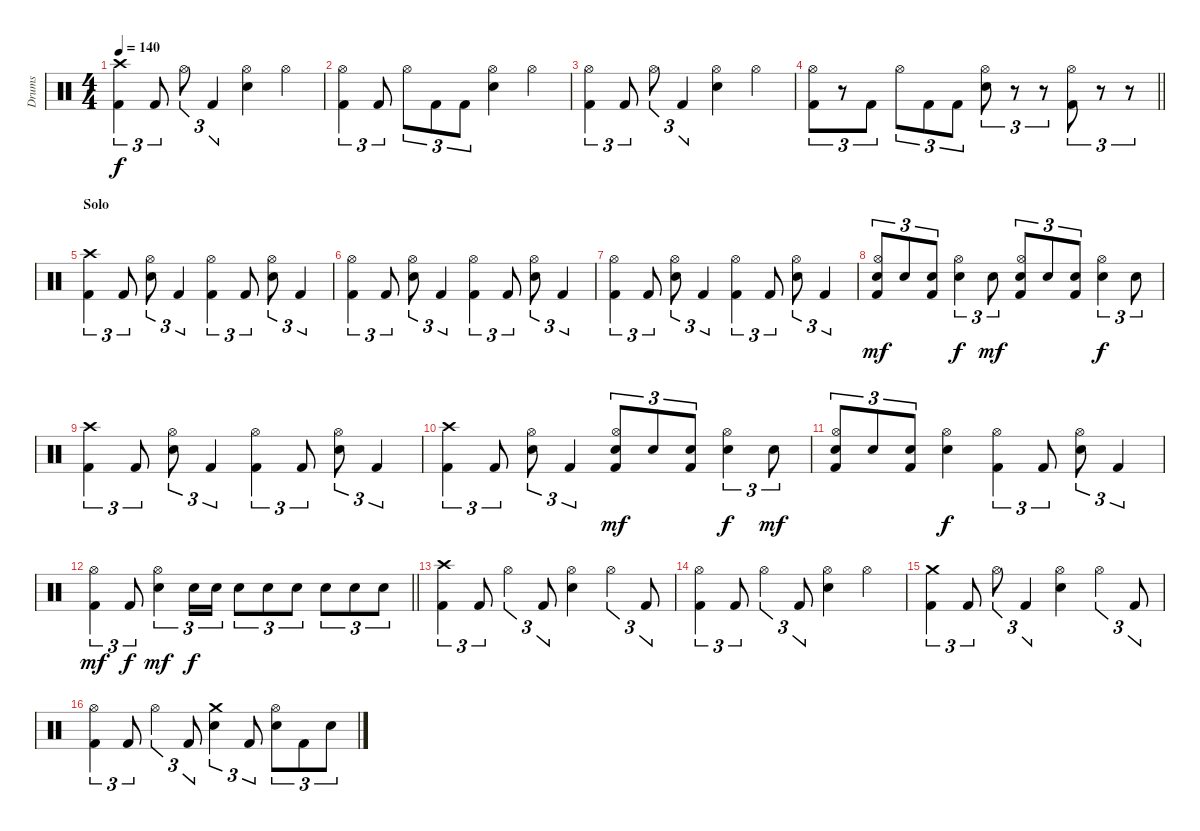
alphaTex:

\track ("Drums" "Drums") {instrument percussion}
\staff {score}
\articulation defaults
\ts (4 4)
\tempo 140
\clef neutral
\ks c
("Crash high (hit)" "Kick (hit) 2").4{tu (3 2) dy f} "Kick (hit) 2".8{tu (3 2)} "Hi-Hat (open)".8{tu (3 2)} "Kick (hit) 2".4{tu (3 2)} ("Hi-Hat (open)" "Electric Snare (hit)").4 "Hi-Hat (open)".4 |
("Hi-Hat (open)" "Kick (hit) 2").4{tu (3 2)} "Kick (hit) 2".8{tu (3 2)} "Hi-Hat (open)".8{tu (3 2)} "Kick (hit) 2".8{tu (3 2)} "Kick (hit) 2".8{tu (3 2)} ("Hi-Hat (open)" "Electric Snare (hit)").4 "Hi-Hat (open)".4 |
("Hi-Hat (open)" "Kick (hit) 2").4{tu (3 2)} "Kick (hit) 2".8{tu (3 2)} "Hi-Hat (open)".8{tu (3 2)} "Kick (hit) 2".4{tu (3 2)} ("Hi-Hat (open)" "Electric Snare (hit)").4 "Hi-Hat (open)".4 |
\barLineRight lightlight
("Hi-Hat (open)" "Kick (hit) 2").8{tu (3 2)} r.8{tu (3 2)} "Kick (hit) 2".8{tu (3 2)} "Hi-Hat (open)".8{tu (3 2)} "Kick (hit) 2".8{tu (3 2)} "Kick (hit) 2".8{tu (3 2)} ("Hi-Hat (open)" "Electric Snare (hit)").8{tu (3 2)} r.8{tu (3 2)} r.8{tu (3 2)} ("Hi-Hat (open)" "Kick (hit) 2").8{tu (3 2)} r.8{tu (3 2)} r.8{tu (3 2)} |
\section ("" "Solo")
("Crash high (hit)" "Kick (hit) 2").4{tu (3 2)} "Kick (hit) 2".8{tu (3 2)} ("Hi-Hat (open)" "Electric Snare (hit)").8{tu (3 2)} "Kick (hit) 2".4{tu (3 2)} ("Hi-Hat (open)" "Kick (hit) 2").4{tu (3 2)} "Kick (hit) 2".8{tu (3 2)} ("Hi-Hat (open)" "Electric Snare (hit)").8{tu (3 2)} "Kick (hit) 2".4{tu (3 2)} |
("Hi-Hat (open)" "Kick (hit) 2").4{tu (3 2)} "Kick (hit) 2".8{tu (3 2)} ("Hi-Hat (open)" "Electric Snare (hit)").8{tu (3 2)} "Kick (hit) 2".4{tu (3 2)} ("Hi-Hat (open)" "Kick (hit) 2").4{tu (3 2)} "Kick (hit) 2".8{tu (3 2)} ("Hi-Hat (open)" "Electric Snare (hit)").8{tu (3 2)} "Kick (hit) 2".4{tu (3 2)} |
("Hi-Hat (open)" "Kick (hit) 2").4{tu (3 2)} "Kick (hit) 2".8{tu (3 2)} ("Hi-Hat (open)" "Electric Snare (hit)").8{tu (3 2)} "Kick (hit) 2".4{tu (3 2)} ("Hi-Hat (open)" "Kick (hit) 2").4{tu (3 2)} "Kick (hit) 2".8{tu (3 2)} ("Hi-Hat (open)" "Electric Snare (hit)").8{tu (3 2)} "Kick (hit) 2".4{tu (3 2)} |
("Hi-Hat (open)" "Electric Snare (hit)" "Kick (hit) 2").8{tu (3 2) dy mf} "Electric Snare (hit)".8{tu (3 2)} ("Electric Snare (hit)" "Kick (hit) 2").8{tu (3 2)} ("Hi-Hat (open)" "Electric Snare (hit)").4{tu (3 2) dy f} "Electric Snare (hit)".8{tu (3 2) dy mf} ("Hi-Hat (open)" "Electric Snare (hit)" "Kick (hit) 2").8{tu (3 2)} "Electric Snare (hit)".8{tu (3 2)} ("Electric Snare (hit)" "Kick (hit) 2").8{tu (3 2)} ("Hi-Hat (open)" "Electric Snare (hit)").4{tu (3 2) dy f} "Electric Snare (hit)".8{tu (3 2)} |
("Crash high (hit)" "Kick (hit) 2").4{tu (3 2)} "Kick (hit) 2".8{tu (3 2)} ("Hi-Hat (open)" "Electric Snare (hit)").8{tu (3 2)} "Kick (hit) 2".4{tu (3 2)} ("Hi-Hat (open)" "Kick (hit) 2").4{tu (3 2)} "Kick (hit) 2".8{tu (3 2)} ("Hi-Hat (open)" "Electric Snare (hit)").8{tu (3 2)} "Kick (hit) 2".4{tu (3 2)} |
("Crash high (hit)" "Kick (hit) 2").4{tu (3 2)} "Kick (hit) 2".8{tu (3 2)} ("Hi-Hat (open)" "Electric Snare (hit)").8{tu (3 2)} "Kick (hit) 2".4{tu (3 2)} ("Hi-Hat (open)" "Electric Snare (hit)" "Kick (hit) 2").8{tu (3 2) dy mf} "Electric Snare (hit)".8{tu (3 2)} ("Electric Snare (hit)" "Kick (hit) 2").8{tu (3 2)} ("Hi-Hat (open)" "Electric Snare (hit)").4{tu (3 2) dy f} "Electric Snare (hit)".8{tu (3 2) dy mf} |
("Hi-Hat (open)" "Electric Snare (hit)" "Kick (hit) 2").8{tu (3 2)} "Electric Snare (hit)".8{tu (3 2)} ("Electric Snare (hit)" "Kick (hit) 2").8{tu (3 2)} ("Hi-Hat (open)" "Electric Snare (hit)").4{dy f} ("Hi-Hat (open)" "Kick (hit) 2").4{tu (3 2)} "Kick (hit) 2".8{tu (3 2)} ("Hi-Hat (open)" "Electric Snare (hit)").8{tu (3 2)} "Kick (hit) 2".4{tu (3 2)} |
\barLineRight lightlight
("Hi-Hat (open)" "Kick (hit) 2").4{tu (3 2) dy mf} "Kick (hit) 2".8{tu (3 2) dy f} ("Hi-Hat (open)" "Electric Snare (hit)").4{tu (3 2) dy mf} "Electric Snare (hit)".16{tu (3 2) dy f} "Electric Snare (hit)".16{tu (3 2)} "Electric Snare (hit)".8{tu (3 2)} "Electric Snare (hit)".8{tu (3 2)} "Electric Snare (hit)".8{tu (3 2)} "Electric Snare (hit)".8{tu (3 2)} "Electric Snare (hit)".8{tu (3 2)} "Electric Snare (hit)".8{tu (3 2)} |
("Crash high (hit)" "Kick (hit) 2").4{tu (3 2)} "Kick (hit) 2".8{tu (3 2)} "Hi-Hat (open)".4{tu (3 2)} "Kick (hit) 2".8{tu (3 2)} ("Hi-Hat (open)" "Electric Snare (hit)").4 "Hi-Hat (open)".4{tu (3 2)} "Kick (hit) 2".8{tu (3 2)} |
("Hi-Hat (open)" "Kick (hit) 2").4{tu (3 2)} "Kick (hit) 2".8{tu (3 2)} "Hi-Hat (open)".4{tu (3 2)} "Kick (hit) 2".8{tu (3 2)} ("Hi-Hat (open)" "Electric Snare (hit)").4 "Hi-Hat (open)".4 |
("Crash medium (hit)" "Kick (hit) 2").4{tu (3 2)} "Kick (hit) 2".8{tu (3 2)} "Hi-Hat (open)".8{tu (3 2)} "Kick (hit) 2".4{tu (3 2)} ("Hi-Hat (open)" "Electric Snare (hit)").4 "Hi-Hat (open)".4{tu (3 2)} "Kick (hit) 2".8{tu (3 2)} |
("Hi-Hat (open)" "Kick (hit) 2").4{tu (3 2)} "Kick (hit) 2".8{tu (3 2)} "Hi-Hat (open)".4{tu (3 2)} "Kick (hit) 2".8{tu (3 2)} ("Crash medium (hit)" "Electric Snare (hit)").4{tu (3 2)} "Kick (hit) 2".8{tu (3 2)} ("Hi-Hat (open)" "Electric Snare (hit)").8{tu (3 2)} "Kick (hit) 2".8{tu (3 2)} "Electric Snare (hit)".8{tu (3 2)}
